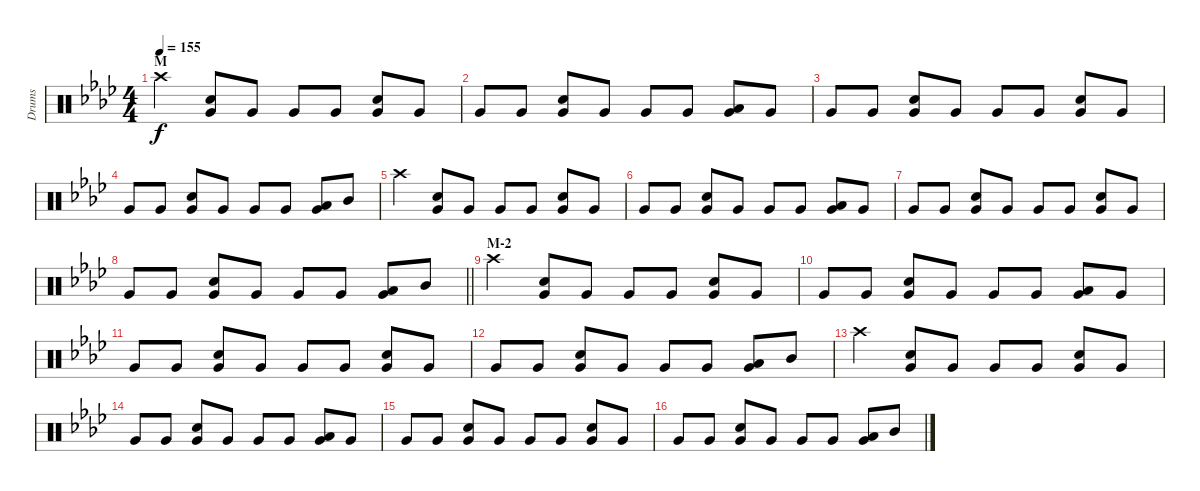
\track ("Drums" "Drums") {instrument percussion}
\staff {score}
\articulation defaults
\ts (4 4)
\section ("" "M")
\tempo 155
\clef neutral
\ks ab "Crash high (hit)".4{dy f}
("Very Low Tom (hit)" "Snare (hit) 2").8 "Very Low Tom (hit)".8 "Very Low Tom (hit)".8 "Very Low Tom (hit)".8 ("Very Low Tom (hit)" "Snare (hit) 2").8 "Very Low Tom (hit)".8 |
"Very Low Tom (hit)".8 "Very Low Tom (hit)".8 ("Very Low Tom (hit)" "Snare (hit) 2").8 "Very Low Tom (hit)".8 "Very Low Tom (hit)".8 "Very Low Tom (hit)".8 ("Very Low Tom (hit)" "Low Tom (hit)").8 "Very Low Tom (hit)".8 |
"Very Low Tom (hit)".8 "Very Low Tom (hit)".8 ("Very Low Tom (hit)" "Snare (hit) 2").8 "Very Low Tom (hit)".8 "Very Low Tom (hit)".8 "Very Low Tom (hit)".8 ("Very Low Tom (hit)" "Snare (hit) 2").8 "Very Low Tom (hit)".8 |
"Very Low Tom (hit)".8 "Very Low Tom (hit)".8 ("Very Low Tom (hit)" "Snare (hit) 2").8 "Very Low Tom (hit)".8 "Very Low Tom (hit)".8 "Very Low Tom (hit)".8 ("Very Low Tom (hit)" "Low Tom (hit)").8 "Mid Tom (hit)".8 |
"Crash high (hit)".4 ("Very Low Tom (hit)" "Snare (hit) 2").8 "Very Low Tom (hit)".8 "Very Low Tom (hit)".8 "Very Low Tom (hit)".8 ("Very Low Tom (hit)" "Snare (hit) 2").8 "Very Low Tom (hit)".8 |
"Very Low Tom (hit)".8 "Very Low Tom (hit)".8 ("Very Low Tom (hit)" "Snare (hit) 2").8 "Very Low Tom (hit)".8 "Very Low Tom (hit)".8 "Very Low Tom (hit)".8 ("Very Low Tom (hit)" "Low Tom (hit)").8 "Very Low Tom (hit)".8 |
"Very Low Tom (hit)".8 "Very Low Tom (hit)".8 ("Very Low Tom (hit)" "Snare (hit) 2").8 "Very Low Tom (hit)".8 "Very Low Tom (hit)".8 "Very Low Tom (hit)".8 ("Very Low Tom (hit)" "Snare (hit) 2").8 "Very Low Tom (hit)".8 |
\barLineRight lightlight "Very Low Tom (hit)".8 "Very Low Tom (hit)".8
("Very Low Tom (hit)" "Snare (hit) 2").8 "Very Low Tom (hit)".8 "Very Low Tom (hit)".8 "Very Low Tom (hit)".8 ("Very Low Tom (hit)" "Low Tom (hit)").8 "Mid Tom (hit)".8 |
\section ("" "M-2")
"Crash high (hit)".4 ("Very Low Tom (hit)" "Snare (hit) 2").8 "Very Low Tom (hit)".8 "Very Low Tom (hit)".8 "Very Low Tom (hit)".8 ("Very Low Tom (hit)" "Snare (hit) 2").8 "Very Low Tom (hit)".8 |
"Very Low Tom (hit)".8 "Very Low Tom (hit)".8 ("Very Low Tom (hit)" "Snare (hit) 2").8 "Very Low Tom (hit)".8 "Very Low Tom (hit)".8 "Very Low Tom (hit)".8 ("Very Low Tom (hit)" "Low Tom (hit)").8 "Very Low Tom (hit)".8 |
"Very Low Tom (hit)".8 "Very Low Tom (hit)".8 ("Very Low Tom (hit)" "Snare (hit) 2").8 "Very Low Tom (hit)".8 "Very Low Tom (hit)".8 "Very Low Tom (hit)".8 ("Very Low Tom (hit)" "Snare (hit) 2").8 "Very Low Tom (hit)".8 |
"Very Low Tom (hit)".8 "Very Low Tom (hit)".8 ("Very Low Tom (hit)" "Snare (hit) 2").8 "Very Low Tom (hit)".8 "Very Low Tom (hit)".8 "Very Low Tom (hit)".8 ("Very Low Tom (hit)" "Low Tom (hit)").8 "Mid Tom (hit)".8 |
"Crash high (hit)".4 ("Very Low Tom (hit)" "Snare (hit) 2").8 "Very Low Tom (hit)".8 "Very Low Tom (hit)".8 "Very Low Tom (hit)".8 ("Very Low Tom (hit)" "Snare (hit) 2").8 "Very Low Tom (hit)".8 |
"Very Low Tom (hit)".8 "Very Low Tom (hit)".8 ("Very Low Tom (hit)" "Snare (hit) 2").8 "Very Low Tom (hit)".8 "Very Low Tom (hit)".8 "Very Low Tom (hit)".8 ("Very Low Tom (hit)" "Low Tom (hit)").8 "Very Low Tom (hit)".8 |
"Very Low Tom (hit)".8 "Very Low Tom (hit)".8 ("Very Low Tom (hit)" "Snare (hit) 2").8 "Very Low Tom (hit)".8 "Very Low Tom (hit)".8 "Very Low Tom (hit)".8 ("Very Low Tom (hit)" "Snare (hit) 2").8 "Very Low Tom (hit)".8 |
"Very Low Tom (hit)".8 "Very Low Tom (hit)".8 ("Very Low Tom (hit)" "Snare (hit) 2").8 "Very Low Tom (hit)".8 "Very Low Tom (hit)".8 "Very Low Tom (hit)".8 ("Very Low Tom (hit)" "Low Tom (hit)").8 "Mid Tom (hit)".8
